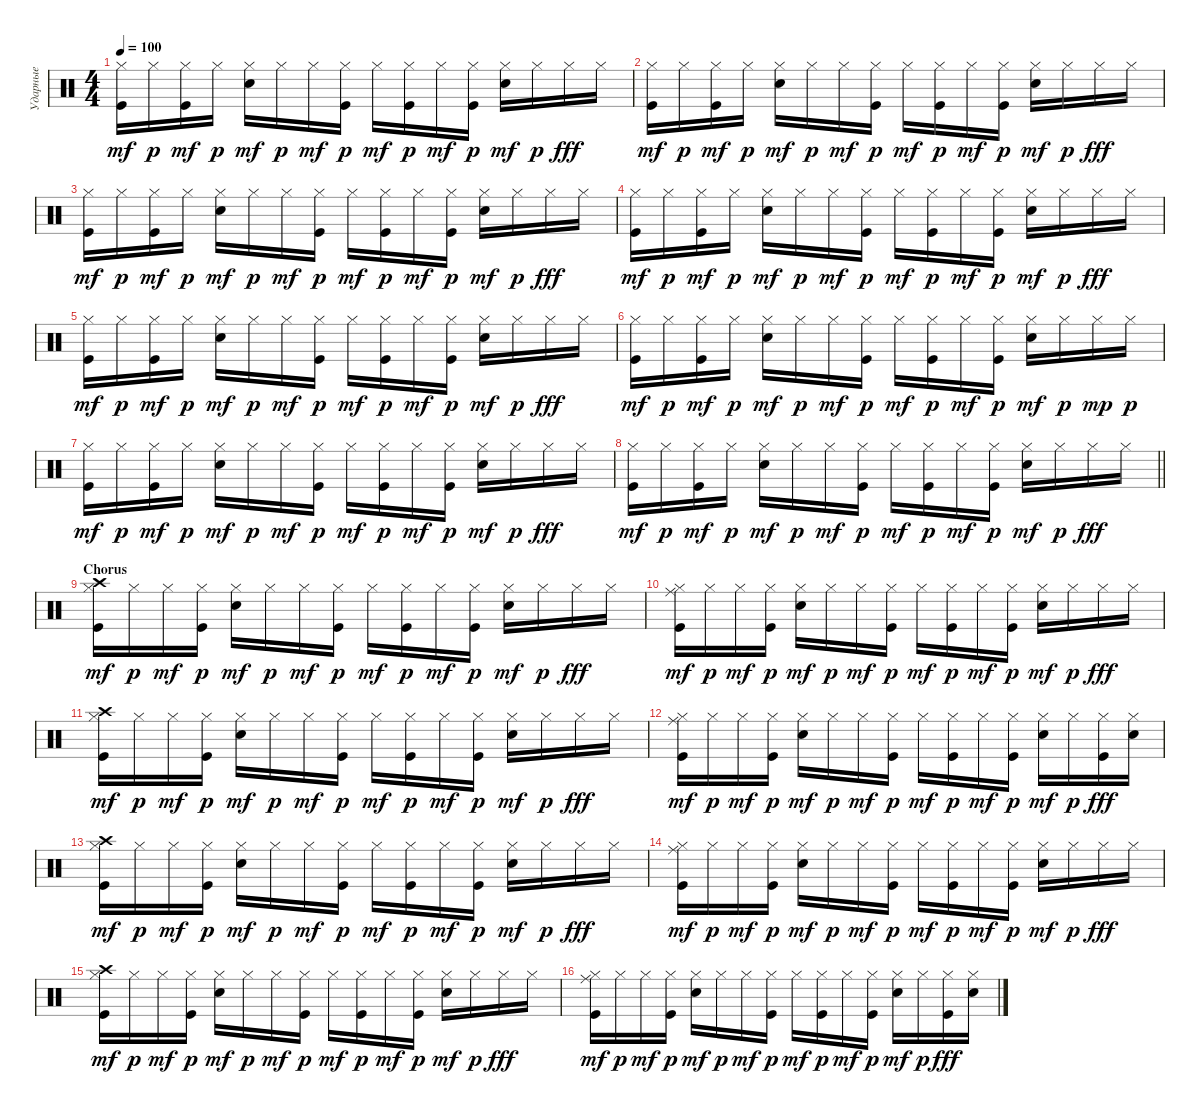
\track ("Ударные" "Ударные") {instrument percussion}
\staff {score}
\articulation defaults
\ts (4 4)
\tempo 100
\clef neutral
\ks c
("Hi-Hat (closed)" "Kick (hit)").16{dy mf} "Hi-Hat (closed)".16{dy p} ("Hi-Hat (closed)" "Kick (hit)").16{dy mf} "Hi-Hat (closed)".16{dy p} ("Hi-Hat (closed)" "Snare (hit) 2").16{dy mf} "Hi-Hat (closed)".16{dy p} "Hi-Hat (closed)".16{dy mf} ("Hi-Hat (closed)" "Kick (hit)").16{dy p} "Hi-Hat (closed)".16{dy mf} ("Hi-Hat (closed)" "Kick (hit)").16{dy p} "Hi-Hat (closed)".16{dy mf} ("Hi-Hat (closed)" "Kick (hit)").16{dy p} ("Hi-Hat (closed)" "Snare (hit) 2").16{dy mf} "Hi-Hat (closed)".16{dy p} "Hi-Hat (closed)".16{dy fff} "Hi-Hat (closed)".16 |
("Hi-Hat (closed)" "Kick (hit)").16{dy mf} "Hi-Hat (closed)".16{dy p} ("Hi-Hat (closed)" "Kick (hit)").16{dy mf} "Hi-Hat (closed)".16{dy p} ("Hi-Hat (closed)" "Snare (hit) 2").16{dy mf} "Hi-Hat (closed)".16{dy p} "Hi-Hat (closed)".16{dy mf} ("Hi-Hat (closed)" "Kick (hit)").16{dy p} "Hi-Hat (closed)".16{dy mf} ("Hi-Hat (closed)" "Kick (hit)").16{dy p} "Hi-Hat (closed)".16{dy mf} ("Hi-Hat (closed)" "Kick (hit)").16{dy p} ("Hi-Hat (closed)" "Snare (hit) 2").16{dy mf} "Hi-Hat (closed)".16{dy p} "Hi-Hat (closed)".16{dy fff} "Hi-Hat (closed)".16 |
("Hi-Hat (closed)" "Kick (hit)").16{dy mf} "Hi-Hat (closed)".16{dy p} ("Hi-Hat (closed)" "Kick (hit)").16{dy mf} "Hi-Hat (closed)".16{dy p} ("Hi-Hat (closed)" "Snare (hit) 2").16{dy mf} "Hi-Hat (closed)".16{dy p} "Hi-Hat (closed)".16{dy mf} ("Hi-Hat (closed)" "Kick (hit)").16{dy p} "Hi-Hat (closed)".16{dy mf} ("Hi-Hat (closed)" "Kick (hit)").16{dy p} "Hi-Hat (closed)".16{dy mf} ("Hi-Hat (closed)" "Kick (hit)").16{dy p} ("Hi-Hat (closed)" "Snare (hit) 2").16{dy mf} "Hi-Hat (closed)".16{dy p} "Hi-Hat (closed)".16{dy fff} "Hi-Hat (closed)".16 |
("Hi-Hat (closed)" "Kick (hit)").16{dy mf} "Hi-Hat (closed)".16{dy p} ("Hi-Hat (closed)" "Kick (hit)").16{dy mf} "Hi-Hat (closed)".16{dy p} ("Hi-Hat (closed)" "Snare (hit) 2").16{dy mf} "Hi-Hat (closed)".16{dy p} "Hi-Hat (closed)".16{dy mf} ("Hi-Hat (closed)" "Kick (hit)").16{dy p} "Hi-Hat (closed)".16{dy mf} ("Hi-Hat (closed)" "Kick (hit)").16{dy p} "Hi-Hat (closed)".16{dy mf} ("Hi-Hat (closed)" "Kick (hit)").16{dy p} ("Hi-Hat (closed)" "Snare (hit) 2").16{dy mf} "Hi-Hat (closed)".16{dy p} "Hi-Hat (closed)".16{dy fff} "Hi-Hat (closed)".16 |
("Hi-Hat (closed)" "Kick (hit)").16{dy mf} "Hi-Hat (closed)".16{dy p} ("Hi-Hat (closed)" "Kick (hit)").16{dy mf} "Hi-Hat (closed)".16{dy p} ("Hi-Hat (closed)" "Snare (hit) 2").16{dy mf} "Hi-Hat (closed)".16{dy p} "Hi-Hat (closed)".16{dy mf} ("Hi-Hat (closed)" "Kick (hit)").16{dy p} "Hi-Hat (closed)".16{dy mf} ("Hi-Hat (closed)" "Kick (hit)").16{dy p} "Hi-Hat (closed)".16{dy mf} ("Hi-Hat (closed)" "Kick (hit)").16{dy p} ("Hi-Hat (closed)" "Snare (hit) 2").16{dy mf} "Hi-Hat (closed)".16{dy p} "Hi-Hat (closed)".16{dy fff} "Hi-Hat (closed)".16 |
("Hi-Hat (closed)" "Kick (hit)").16{dy mf} "Hi-Hat (closed)".16{dy p} ("Hi-Hat (closed)" "Kick (hit)").16{dy mf} "Hi-Hat (closed)".16{dy p} ("Hi-Hat (closed)" "Snare (hit) 2").16{dy mf} "Hi-Hat (closed)".16{dy p} "Hi-Hat (closed)".16{dy mf} ("Hi-Hat (closed)" "Kick (hit)").16{dy p} "Hi-Hat (closed)".16{dy mf} ("Hi-Hat (closed)" "Kick (hit)").16{dy p} "Hi-Hat (closed)".16{dy mf} ("Hi-Hat (closed)" "Kick (hit)").16{dy p} ("Hi-Hat (closed)" "Snare (hit) 2").16{dy mf} "Hi-Hat (closed)".16{dy p} "Hi-Hat (closed)".16{dy mp} "Hi-Hat (closed)".16{dy p} |
("Hi-Hat (closed)" "Kick (hit)").16{dy mf} "Hi-Hat (closed)".16{dy p} ("Hi-Hat (closed)" "Kick (hit)").16{dy mf} "Hi-Hat (closed)".16{dy p} ("Hi-Hat (closed)" "Snare (hit) 2").16{dy mf} "Hi-Hat (closed)".16{dy p} "Hi-Hat (closed)".16{dy mf} ("Hi-Hat (closed)" "Kick (hit)").16{dy p} "Hi-Hat (closed)".16{dy mf} ("Hi-Hat (closed)" "Kick (hit)").16{dy p} "Hi-Hat (closed)".16{dy mf} ("Hi-Hat (closed)" "Kick (hit)").16{dy p} ("Hi-Hat (closed)" "Snare (hit) 2").16{dy mf} "Hi-Hat (closed)".16{dy p} "Hi-Hat (closed)".16{dy fff} "Hi-Hat (closed)".16 |
\barLineRight lightlight
("Hi-Hat (closed)" "Kick (hit)").16{dy mf} "Hi-Hat (closed)".16{dy p} ("Hi-Hat (closed)" "Kick (hit)").16{dy mf} "Hi-Hat (closed)".16{dy p} ("Hi-Hat (closed)" "Snare (hit) 2").16{dy mf} "Hi-Hat (closed)".16{dy p} "Hi-Hat (closed)".16{dy mf} ("Hi-Hat (closed)" "Kick (hit)").16{dy p} "Hi-Hat (closed)".16{dy mf} ("Hi-Hat (closed)" "Kick (hit)").16{dy p} "Hi-Hat (closed)".16{dy mf} ("Hi-Hat (closed)" "Kick (hit)").16{dy p} ("Hi-Hat (closed)" "Snare (hit) 2").16{dy mf} "Hi-Hat (closed)".16{dy p} "Hi-Hat (closed)".16{dy fff} "Hi-Hat (closed)".16 |
\section ("" "Chorus")
("Hi-Hat (closed)" "Crash high (hit)" "Kick (hit)").16{dy mf} "Hi-Hat (closed)".16{dy p} "Hi-Hat (closed)".16{dy mf} ("Hi-Hat (closed)" "Kick (hit)").16{dy p} ("Hi-Hat (closed)" "Snare (hit) 2").16{dy mf} "Hi-Hat (closed)".16{dy p} "Hi-Hat (closed)".16{dy mf} ("Hi-Hat (closed)" "Kick (hit)").16{dy p} "Hi-Hat (closed)".16{dy mf} ("Hi-Hat (closed)" "Kick (hit)").16{dy p} "Hi-Hat (closed)".16{dy mf} ("Hi-Hat (closed)" "Kick (hit)").16{dy p} ("Hi-Hat (closed)" "Snare (hit) 2").16{dy mf} "Hi-Hat (closed)".16{dy p} "Hi-Hat (closed)".16{dy fff} "Hi-Hat (closed)".16 |
("Hi-Hat (closed)" "Ride (middle)" "Kick (hit)").16{dy mf} "Hi-Hat (closed)".16{dy p} "Hi-Hat (closed)".16{dy mf} ("Hi-Hat (closed)" "Kick (hit)").16{dy p} ("Hi-Hat (closed)" "Snare (hit) 2").16{dy mf} "Hi-Hat (closed)".16{dy p} "Hi-Hat (closed)".16{dy mf} ("Hi-Hat (closed)" "Kick (hit)").16{dy p} "Hi-Hat (closed)".16{dy mf} ("Hi-Hat (closed)" "Kick (hit)").16{dy p} "Hi-Hat (closed)".16{dy mf} ("Hi-Hat (closed)" "Kick (hit)").16{dy p} ("Hi-Hat (closed)" "Snare (hit) 2").16{dy mf} "Hi-Hat (closed)".16{dy p} "Hi-Hat (closed)".16{dy fff} "Hi-Hat (closed)".16 |
("Hi-Hat (closed)" "Crash high (hit)" "Kick (hit)").16{dy mf} "Hi-Hat (closed)".16{dy p} "Hi-Hat (closed)".16{dy mf} ("Hi-Hat (closed)" "Kick (hit)").16{dy p} ("Hi-Hat (closed)" "Snare (hit) 2").16{dy mf} "Hi-Hat (closed)".16{dy p} "Hi-Hat (closed)".16{dy mf} ("Hi-Hat (closed)" "Kick (hit)").16{dy p} "Hi-Hat (closed)".16{dy mf} ("Hi-Hat (closed)" "Kick (hit)").16{dy p} "Hi-Hat (closed)".16{dy mf} ("Hi-Hat (closed)" "Kick (hit)").16{dy p} ("Hi-Hat (closed)" "Snare (hit) 2").16{dy mf} "Hi-Hat (closed)".16{dy p} "Hi-Hat (closed)".16{dy fff} "Hi-Hat (closed)".16 |
("Hi-Hat (closed)" "Ride (middle)" "Kick (hit)").16{dy mf} "Hi-Hat (closed)".16{dy p} "Hi-Hat (closed)".16{dy mf} ("Hi-Hat (closed)" "Kick (hit)").16{dy p} ("Hi-Hat (closed)" "Snare (hit) 2").16{dy mf} "Hi-Hat (closed)".16{dy p} "Hi-Hat (closed)".16{dy mf} ("Hi-Hat (closed)" "Kick (hit)").16{dy p} "Hi-Hat (closed)".16{dy mf} ("Hi-Hat (closed)" "Kick (hit)").16{dy p} "Hi-Hat (closed)".16{dy mf} ("Hi-Hat (closed)" "Kick (hit)").16{dy p} ("Hi-Hat (closed)" "Snare (hit) 2").16{dy mf} "Hi-Hat (closed)".16{dy p} ("Hi-Hat (closed)" "Kick (hit)").16{dy fff} ("Hi-Hat (closed)" "Snare (hit) 2").16 |
("Hi-Hat (closed)" "Crash high (hit)" "Kick (hit)").16{dy mf} "Hi-Hat (closed)".16{dy p} "Hi-Hat (closed)".16{dy mf} ("Hi-Hat (closed)" "Kick (hit)").16{dy p} ("Hi-Hat (closed)" "Snare (hit) 2").16{dy mf} "Hi-Hat (closed)".16{dy p} "Hi-Hat (closed)".16{dy mf} ("Hi-Hat (closed)" "Kick (hit)").16{dy p} "Hi-Hat (closed)".16{dy mf} ("Hi-Hat (closed)" "Kick (hit)").16{dy p} "Hi-Hat (closed)".16{dy mf} ("Hi-Hat (closed)" "Kick (hit)").16{dy p} ("Hi-Hat (closed)" "Snare (hit) 2").16{dy mf} "Hi-Hat (closed)".16{dy p} "Hi-Hat (closed)".16{dy fff} "Hi-Hat (closed)".16 |
("Hi-Hat (closed)" "Ride (middle)" "Kick (hit)").16{dy mf} "Hi-Hat (closed)".16{dy p} "Hi-Hat (closed)".16{dy mf} ("Hi-Hat (closed)" "Kick (hit)").16{dy p} ("Hi-Hat (closed)" "Snare (hit) 2").16{dy mf} "Hi-Hat (closed)".16{dy p} "Hi-Hat (closed)".16{dy mf} ("Hi-Hat (closed)" "Kick (hit)").16{dy p} "Hi-Hat (closed)".16{dy mf} ("Hi-Hat (closed)" "Kick (hit)").16{dy p} "Hi-Hat (closed)".16{dy mf} ("Hi-Hat (closed)" "Kick (hit)").16{dy p} ("Hi-Hat (closed)" "Snare (hit) 2").16{dy mf} "Hi-Hat (closed)".16{dy p} "Hi-Hat (closed)".16{dy fff} "Hi-Hat (closed)".16 |
("Hi-Hat (closed)" "Crash high (hit)" "Kick (hit)").16{dy mf} "Hi-Hat (closed)".16{dy p} "Hi-Hat (closed)".16{dy mf} ("Hi-Hat (closed)" "Kick (hit)").16{dy p} ("Hi-Hat (closed)" "Snare (hit) 2").16{dy mf} "Hi-Hat (closed)".16{dy p} "Hi-Hat (closed)".16{dy mf} ("Hi-Hat (closed)" "Kick (hit)").16{dy p} "Hi-Hat (closed)".16{dy mf} ("Hi-Hat (closed)" "Kick (hit)").16{dy p} "Hi-Hat (closed)".16{dy mf} ("Hi-Hat (closed)" "Kick (hit)").16{dy p} ("Hi-Hat (closed)" "Snare (hit) 2").16{dy mf} "Hi-Hat (closed)".16{dy p} "Hi-Hat (closed)".16{dy fff} "Hi-Hat (closed)".16 |
("Hi-Hat (closed)" "Ride (middle)" "Kick (hit)").16{dy mf} "Hi-Hat (closed)".16{dy p} "Hi-Hat (closed)".16{dy mf} ("Hi-Hat (closed)" "Kick (hit)").16{dy p} ("Hi-Hat (closed)" "Snare (hit) 2").16{dy mf} "Hi-Hat (closed)".16{dy p} "Hi-Hat (closed)".16{dy mf} ("Hi-Hat (closed)" "Kick (hit)").16{dy p} "Hi-Hat (closed)".16{dy mf} ("Hi-Hat (closed)" "Kick (hit)").16{dy p} "Hi-Hat (closed)".16{dy mf} ("Hi-Hat (closed)" "Kick (hit)").16{dy p} ("Hi-Hat (closed)" "Snare (hit) 2").16{dy mf} "Hi-Hat (closed)".16{dy p} ("Hi-Hat (closed)" "Kick (hit)").16{dy fff} ("Hi-Hat (closed)" "Snare (hit) 2").16
